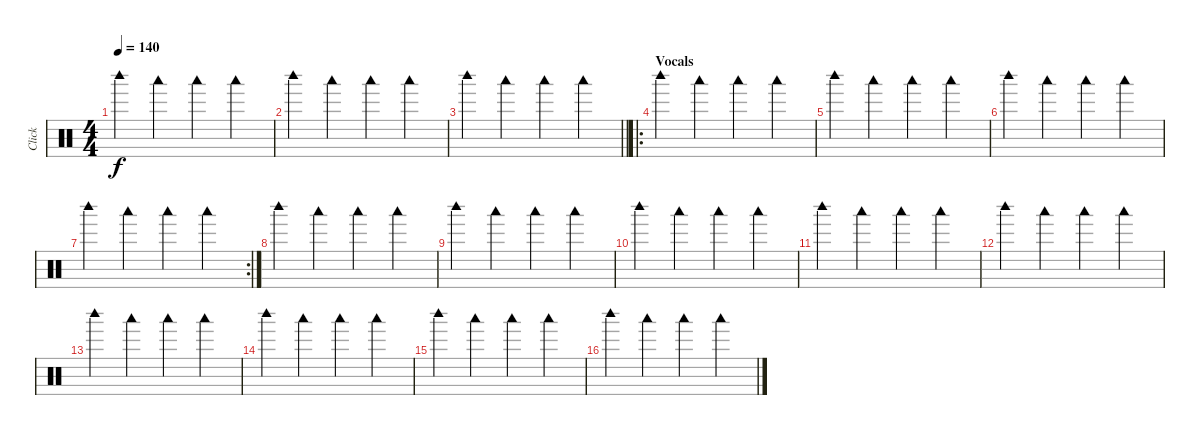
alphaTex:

\track ("Click" "Click") {mute instrument percussion}
\staff {score}
\articulation defaults
\ts (4 4)
\tempo 140
\clef neutral
\ks c "Woodblock high (hit)".4{dy f} "Woodblock low (hit)".4 "Woodblock low (hit)".4 "Woodblock low (hit)".4
|
"Woodblock high (hit)".4 "Woodblock low (hit)".4 "Woodblock low (hit)".4 "Woodblock low (hit)".4 |
\barLineRight lightlight "Woodblock high (hit)".4 "Woodblock low (hit)".4 "Woodblock low (hit)".4 "Woodblock low (hit)".4
|
\ro
\section ("" "Vocals")
"Woodblock high (hit)".4 "Woodblock low (hit)".4 "Woodblock low (hit)".4 "Woodblock low (hit)".4 |
"Woodblock high (hit)".4 "Woodblock low (hit)".4 "Woodblock low (hit)".4 "Woodblock low (hit)".4 |
"Woodblock high (hit)".4 "Woodblock low (hit)".4 "Woodblock low (hit)".4 "Woodblock low (hit)".4 |
\rc 2 "Woodblock high (hit)".4 "Woodblock low (hit)".4 "Woodblock low (hit)".4 "Woodblock low (hit)".4
|
"Woodblock high (hit)".4 "Woodblock low (hit)".4 "Woodblock low (hit)".4 "Woodblock low (hit)".4 |
"Woodblock high (hit)".4 "Woodblock low (hit)".4 "Woodblock low (hit)".4 "Woodblock low (hit)".4 |
"Woodblock high (hit)".4 "Woodblock low (hit)".4 "Woodblock low (hit)".4 "Woodblock low (hit)".4 |
"Woodblock high (hit)".4 "Woodblock low (hit)".4 "Woodblock low (hit)".4 "Woodblock low (hit)".4 |
"Woodblock high (hit)".4 "Woodblock low (hit)".4 "Woodblock low (hit)".4 "Woodblock low (hit)".4 |
"Woodblock high (hit)".4 "Woodblock low (hit)".4 "Woodblock low (hit)".4 "Woodblock low (hit)".4 |
"Woodblock high (hit)".4 "Woodblock low (hit)".4 "Woodblock low (hit)".4 "Woodblock low (hit)".4 |
"Woodblock high (hit)".4 "Woodblock low (hit)".4 "Woodblock low (hit)".4 "Woodblock low (hit)".4 |
"Woodblock high (hit)".4 "Woodblock low (hit)".4 "Woodblock low (hit)".4 "Woodblock low (hit)".4
